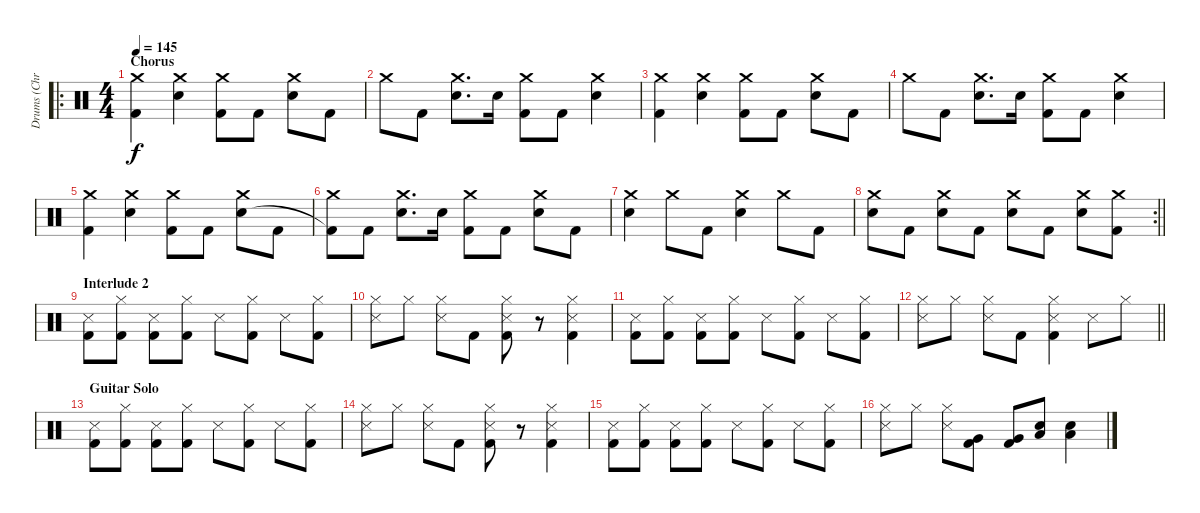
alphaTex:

\track ("Drums (Chris)" "Drums (Chr") {instrument percussion}
\staff {score}
\articulation defaults
\ro
\ts (4 4)
\section ("" "Chorus")
\tempo 145
\clef neutral
\ks c
("Crash medium (hit)" "Kick (hit) 2").4{dy f} ("Crash medium (hit)" "Electric Snare (hit)").4 ("Crash medium (hit)" "Kick (hit) 2").8 "Kick (hit) 2".8 ("Crash medium (hit)" "Electric Snare (hit)").8 "Kick (hit) 2".8 |
"Crash medium (hit)".8 "Kick (hit) 2".8 ("Crash medium (hit)" "Electric Snare (hit)").8{d} "Electric Snare (hit)".16 ("Crash medium (hit)" "Kick (hit) 2").8 "Kick (hit) 2".8 ("Crash medium (hit)" "Electric Snare (hit)").4 |
("Crash medium (hit)" "Kick (hit) 2").4 ("Crash medium (hit)" "Electric Snare (hit)").4 ("Crash medium (hit)" "Kick (hit) 2").8 "Kick (hit) 2".8 ("Crash medium (hit)" "Electric Snare (hit)").8 "Kick (hit) 2".8 |
"Crash medium (hit)".8 "Kick (hit) 2".8 ("Crash medium (hit)" "Electric Snare (hit)").8{d} "Electric Snare (hit)".16 ("Crash medium (hit)" "Kick (hit) 2").8 "Kick (hit) 2".8 ("Crash medium (hit)" "Electric Snare (hit)").4 |
("Crash medium (hit)" "Kick (hit) 2").4 ("Crash medium (hit)" "Electric Snare (hit)").4 ("Crash medium (hit)" "Kick (hit) 2").8 "Kick (hit) 2".8 ("Crash medium (hit)" "Electric Snare (hit)").8 "Kick (hit) 2".8 |
("Crash medium (hit)" "Kick (hit) 2"{t}).8 "Kick (hit) 2".8 ("Crash medium (hit)" "Electric Snare (hit)").8{d} "Electric Snare (hit)".16 ("Crash medium (hit)" "Kick (hit) 2").8 "Kick (hit) 2".8 ("Crash medium (hit)" "Electric Snare (hit)").8 "Kick (hit) 2".8 |
("Crash medium (hit)" "Electric Snare (hit)").4 "Crash medium (hit)".8 "Kick (hit) 2".8 ("Crash medium (hit)" "Electric Snare (hit)").4 "Crash medium (hit)".8 "Kick (hit) 2".8 |
\rc 2
\barLineRight lightlight
("Crash medium (hit)" "Electric Snare (hit)").8 "Kick (hit) 2".8 ("Crash medium (hit)" "Electric Snare (hit)").8 "Kick (hit) 2".8 ("Crash medium (hit)" "Electric Snare (hit)").8 "Kick (hit) 2".8 ("Crash medium (hit)" "Electric Snare (hit)").8 ("Crash medium (hit)" "Kick (hit) 2").8 |
\section ("" "Interlude 2")
("Snare (side stick) 3" "Kick (hit) 2").8 ("Hi-Hat (closed)" "Kick (hit) 2").8 ("Snare (side stick) 3" "Kick (hit) 2").8 ("Hi-Hat (closed)" "Kick (hit) 2").8 "Snare (side stick) 3".8 ("Hi-Hat (closed)" "Kick (hit) 2").8 "Snare (side stick) 3".8 ("Hi-Hat (closed)" "Kick (hit) 2").8 |
("Snare (side stick) 3" "Hi-Hat (closed)").8 "Hi-Hat (closed)".8 ("Snare (side stick) 3" "Hi-Hat (closed)").8 "Kick (hit) 2".8 ("Snare (side stick) 3" "Hi-Hat (closed)" "Kick (hit) 2").8 r.8 ("Snare (side stick) 3" "Hi-Hat (closed)" "Kick (hit) 2").4 |
("Snare (side stick) 3" "Kick (hit) 2").8 ("Hi-Hat (closed)" "Kick (hit) 2").8 ("Snare (side stick) 3" "Kick (hit) 2").8 ("Hi-Hat (closed)" "Kick (hit) 2").8 "Snare (side stick) 3".8 ("Hi-Hat (closed)" "Kick (hit) 2").8 "Snare (side stick) 3".8 ("Hi-Hat (closed)" "Kick (hit) 2").8 |
\barLineRight lightlight
("Snare (side stick) 3" "Hi-Hat (closed)").8 "Hi-Hat (closed)".8 ("Snare (side stick) 3" "Hi-Hat (closed)").8 "Kick (hit) 2".8 ("Snare (side stick) 3" "Hi-Hat (closed)" "Kick (hit) 2").4 "Snare (side stick) 3".8 "Hi-Hat (closed)".8 |
\section ("" "Guitar Solo")
("Snare (side stick) 3" "Kick (hit) 2").8 ("Hi-Hat (closed)" "Kick (hit) 2").8 ("Snare (side stick) 3" "Kick (hit) 2").8 ("Hi-Hat (closed)" "Kick (hit) 2").8 "Snare (side stick) 3".8 ("Hi-Hat (closed)" "Kick (hit) 2").8 "Snare (side stick) 3".8 ("Hi-Hat (closed)" "Kick (hit) 2").8 |
("Snare (side stick) 3" "Hi-Hat (closed)").8 "Hi-Hat (closed)".8 ("Snare (side stick) 3" "Hi-Hat (closed)").8 "Kick (hit) 2".8 ("Snare (side stick) 3" "Hi-Hat (closed)" "Kick (hit) 2").8 r.8 ("Snare (side stick) 3" "Hi-Hat (closed)" "Kick (hit) 2").4 |
("Snare (side stick) 3" "Kick (hit) 2").8 ("Hi-Hat (closed)" "Kick (hit) 2").8 ("Snare (side stick) 3" "Kick (hit) 2").8 ("Hi-Hat (closed)" "Kick (hit) 2").8 "Snare (side stick) 3".8 ("Hi-Hat (closed)" "Kick (hit) 2").8 "Snare (side stick) 3".8 ("Hi-Hat (closed)" "Kick (hit) 2").8 |
("Snare (side stick) 3" "Hi-Hat (closed)").8 "Hi-Hat (closed)".8 ("Snare (side stick) 3" "Hi-Hat (closed)").8 ("Very Low Tom (hit)" "Kick (hit) 2").8 ("Very Low Tom (hit)" "Kick (hit) 2").8 ("Low Floor Tom (hit)" "Electric Snare (hit)").8 ("Low Floor Tom (hit)" "Electric Snare (hit)").4
